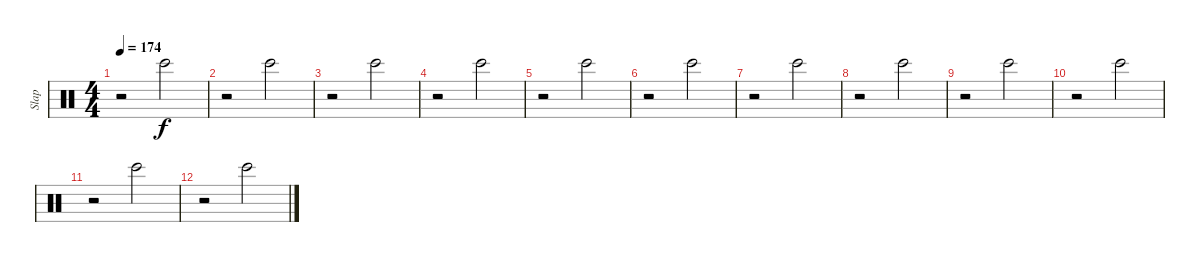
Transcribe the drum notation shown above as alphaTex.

\track ("Slap" "Slap") {instrument percussion}
\staff {score}
\articulation defaults
\ts (4 4)
\tempo 174
\clef neutral
\ks c
r.2{dy f} "Bongo High (hit)".2 |
r.2 "Bongo High (hit)".2 |
r.2 "Bongo High (hit)".2 |
r.2 "Bongo High (hit)".2 |
r.2 "Bongo High (hit)".2 |
r.2 "Bongo High (hit)".2 |
r.2 "Bongo High (hit)".2 |
r.2 "Bongo High (hit)".2 |
r.2 "Bongo High (hit)".2 |
r.2 "Bongo High (hit)".2 |
r.2 "Bongo High (hit)".2 |
r.2 "Bongo High (hit)".2
